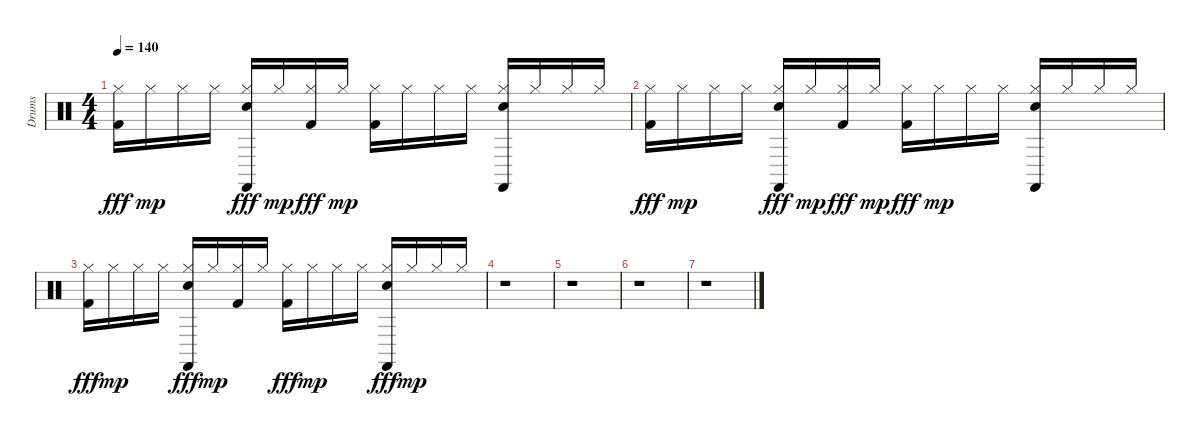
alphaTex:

\track ("Drums" "Drums") {instrument percussion}
\staff {score}
\articulation defaults
\ts (4 4)
\tempo 140
\clef neutral
\ks c
("Hi-Hat (closed)" "Kick (hit) 2").16{dy fff} "Hi-Hat (closed)".16{dy mp} "Hi-Hat (closed)".16 "Hi-Hat (closed)".16 ("Hi-Hat (closed)" "Snare (hit) 2" "Castanets (hit)").16{dy fff} "Hi-Hat (closed)".16{dy mp} ("Hi-Hat (closed)" "Kick (hit) 2").16{dy fff} "Hi-Hat (closed)".16{dy mp} ("Kick (hit) 2" "Hi-Hat (closed)").16 "Hi-Hat (closed)".16 "Hi-Hat (closed)".16 "Hi-Hat (closed)".16 ("Snare (hit) 2" "Castanets (hit)" "Hi-Hat (closed)").16 "Hi-Hat (closed)".16 "Hi-Hat (closed)".16 "Hi-Hat (closed)".16 |
("Hi-Hat (closed)" "Kick (hit) 2").16{dy fff} "Hi-Hat (closed)".16{dy mp} "Hi-Hat (closed)".16 "Hi-Hat (closed)".16 ("Castanets (hit)" "Hi-Hat (closed)" "Snare (hit) 2").16{dy fff} "Hi-Hat (closed)".16{dy mp} ("Hi-Hat (closed)" "Kick (hit) 2").16{dy fff} "Hi-Hat (closed)".16{dy mp} ("Hi-Hat (closed)" "Kick (hit) 2").16{dy fff} "Hi-Hat (closed)".16{dy mp} "Hi-Hat (closed)".16 "Hi-Hat (closed)".16 ("Castanets (hit)" "Snare (hit) 2" "Hi-Hat (closed)").16 "Hi-Hat (closed)".16 "Hi-Hat (closed)".16 "Hi-Hat (closed)".16 |
("Hi-Hat (closed)" "Kick (hit) 2").16{dy fff} "Hi-Hat (closed)".16{dy mp} "Hi-Hat (closed)".16 "Hi-Hat (closed)".16 ("Castanets (hit)" "Hi-Hat (closed)" "Snare (hit) 2").16{dy fff} "Hi-Hat (closed)".16{dy mp} ("Kick (hit) 2" "Hi-Hat (closed)").16 "Hi-Hat (closed)".16 ("Hi-Hat (closed)" "Kick (hit) 2").16{dy fff} "Hi-Hat (closed)".16{dy mp} "Hi-Hat (closed)".16 "Hi-Hat (closed)".16 ("Hi-Hat (closed)" "Snare (hit) 2" "Castanets (hit)").16{dy fff} "Hi-Hat (closed)".16{dy mp} "Hi-Hat (closed)".16 "Hi-Hat (closed)".16 |
r.1 |
r.1 |
r.1 |
r.1
